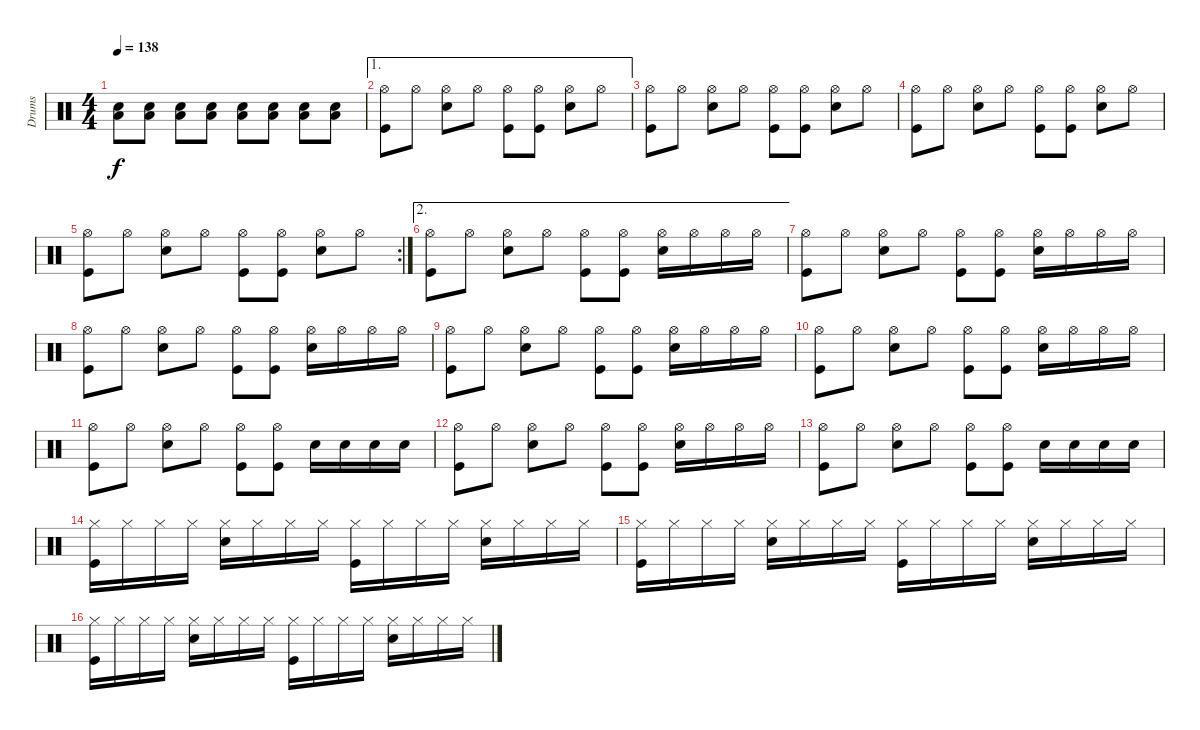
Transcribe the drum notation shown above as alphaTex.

\track ("Drums" "Drums") {instrument percussion}
\staff {score}
\articulation defaults
\ts (4 4)
\tempo 138
\clef neutral
\ks c
("Snare (hit) 2" "Low Floor Tom (hit)").8{dy f} ("Snare (hit) 2" "Low Floor Tom (hit)").8 ("Snare (hit) 2" "Low Floor Tom (hit)").8 ("Snare (hit) 2" "Low Floor Tom (hit)").8 ("Snare (hit) 2" "Low Floor Tom (hit)").8 ("Snare (hit) 2" "Low Floor Tom (hit)").8 ("Snare (hit) 2" "Low Floor Tom (hit)").8 ("Snare (hit) 2" "Low Floor Tom (hit)").8 |
\ae 1
("Hi-Hat (open)" "Kick (hit)").8 "Hi-Hat (open)".8 ("Hi-Hat (open)" "Snare (hit) 2").8 "Hi-Hat (open)".8 ("Hi-Hat (open)" "Kick (hit)").8 ("Hi-Hat (open)" "Kick (hit)").8 ("Hi-Hat (open)" "Snare (hit) 2").8 "Hi-Hat (open)".8 |
("Hi-Hat (open)" "Kick (hit)").8 "Hi-Hat (open)".8 ("Hi-Hat (open)" "Snare (hit) 2").8 "Hi-Hat (open)".8 ("Hi-Hat (open)" "Kick (hit)").8 ("Hi-Hat (open)" "Kick (hit)").8 ("Hi-Hat (open)" "Snare (hit) 2").8 "Hi-Hat (open)".8 |
("Hi-Hat (open)" "Kick (hit)").8 "Hi-Hat (open)".8 ("Hi-Hat (open)" "Snare (hit) 2").8 "Hi-Hat (open)".8 ("Hi-Hat (open)" "Kick (hit)").8 ("Hi-Hat (open)" "Kick (hit)").8 ("Hi-Hat (open)" "Snare (hit) 2").8 "Hi-Hat (open)".8 |
\rc 2
("Hi-Hat (open)" "Kick (hit)").8 "Hi-Hat (open)".8 ("Hi-Hat (open)" "Snare (hit) 2").8 "Hi-Hat (open)".8 ("Hi-Hat (open)" "Kick (hit)").8 ("Hi-Hat (open)" "Kick (hit)").8 ("Hi-Hat (open)" "Snare (hit) 2").8 "Hi-Hat (open)".8 |
\ae 2
("Hi-Hat (open)" "Kick (hit)").8 "Hi-Hat (open)".8 ("Hi-Hat (open)" "Snare (hit) 2").8 "Hi-Hat (open)".8 ("Hi-Hat (open)" "Kick (hit)").8 ("Hi-Hat (open)" "Kick (hit)").8 ("Hi-Hat (open)" "Snare (hit) 2").16 "Hi-Hat (open)".16 "Hi-Hat (open)".16 "Hi-Hat (open)".16 |
("Hi-Hat (open)" "Kick (hit)").8 "Hi-Hat (open)".8 ("Hi-Hat (open)" "Snare (hit) 2").8 "Hi-Hat (open)".8 ("Hi-Hat (open)" "Kick (hit)").8 ("Hi-Hat (open)" "Kick (hit)").8 ("Hi-Hat (open)" "Snare (hit) 2").16 "Hi-Hat (open)".16 "Hi-Hat (open)".16 "Hi-Hat (open)".16 |
("Hi-Hat (open)" "Kick (hit)").8 "Hi-Hat (open)".8 ("Hi-Hat (open)" "Snare (hit) 2").8 "Hi-Hat (open)".8 ("Hi-Hat (open)" "Kick (hit)").8 ("Hi-Hat (open)" "Kick (hit)").8 ("Hi-Hat (open)" "Snare (hit) 2").16 "Hi-Hat (open)".16 "Hi-Hat (open)".16 "Hi-Hat (open)".16 |
("Hi-Hat (open)" "Kick (hit)").8 "Hi-Hat (open)".8 ("Hi-Hat (open)" "Snare (hit) 2").8 "Hi-Hat (open)".8 ("Hi-Hat (open)" "Kick (hit)").8 ("Hi-Hat (open)" "Kick (hit)").8 ("Hi-Hat (open)" "Snare (hit) 2").16 "Hi-Hat (open)".16 "Hi-Hat (open)".16 "Hi-Hat (open)".16 |
("Hi-Hat (open)" "Kick (hit)").8 "Hi-Hat (open)".8 ("Hi-Hat (open)" "Snare (hit) 2").8 "Hi-Hat (open)".8 ("Hi-Hat (open)" "Kick (hit)").8 ("Hi-Hat (open)" "Kick (hit)").8 ("Hi-Hat (open)" "Snare (hit) 2").16 "Hi-Hat (open)".16 "Hi-Hat (open)".16 "Hi-Hat (open)".16 |
("Hi-Hat (open)" "Kick (hit)").8 "Hi-Hat (open)".8 ("Hi-Hat (open)" "Snare (hit) 2").8 "Hi-Hat (open)".8 ("Hi-Hat (open)" "Kick (hit)").8 ("Hi-Hat (open)" "Kick (hit)").8 "Snare (hit) 2".16 "Snare (hit) 2".16 "Snare (hit) 2".16 "Snare (hit) 2".16 |
("Hi-Hat (open)" "Kick (hit)").8 "Hi-Hat (open)".8 ("Hi-Hat (open)" "Snare (hit) 2").8 "Hi-Hat (open)".8 ("Hi-Hat (open)" "Kick (hit)").8 ("Hi-Hat (open)" "Kick (hit)").8 ("Hi-Hat (open)" "Snare (hit) 2").16 "Hi-Hat (open)".16 "Hi-Hat (open)".16 "Hi-Hat (open)".16 |
("Hi-Hat (open)" "Kick (hit)").8 "Hi-Hat (open)".8 ("Hi-Hat (open)" "Snare (hit) 2").8 "Hi-Hat (open)".8 ("Hi-Hat (open)" "Kick (hit)").8 ("Hi-Hat (open)" "Kick (hit)").8 "Snare (hit) 2".16 "Snare (hit) 2".16 "Snare (hit) 2".16 "Snare (hit) 2".16 |
("Hi-Hat (closed)" "Kick (hit)").16 "Hi-Hat (closed)".16 "Hi-Hat (closed)".16 "Hi-Hat (closed)".16 ("Hi-Hat (closed)" "Snare (hit) 2").16 "Hi-Hat (closed)".16 "Hi-Hat (closed)".16 "Hi-Hat (closed)".16 ("Hi-Hat (closed)" "Kick (hit)").16 "Hi-Hat (closed)".16 "Hi-Hat (closed)".16 "Hi-Hat (closed)".16 ("Hi-Hat (closed)" "Snare (hit) 2").16 "Hi-Hat (closed)".16 "Hi-Hat (closed)".16 "Hi-Hat (closed)".16 |
("Hi-Hat (closed)" "Kick (hit)").16 "Hi-Hat (closed)".16 "Hi-Hat (closed)".16 "Hi-Hat (closed)".16 ("Hi-Hat (closed)" "Snare (hit) 2").16 "Hi-Hat (closed)".16 "Hi-Hat (closed)".16 "Hi-Hat (closed)".16 ("Hi-Hat (closed)" "Kick (hit)").16 "Hi-Hat (closed)".16 "Hi-Hat (closed)".16 "Hi-Hat (closed)".16 ("Hi-Hat (closed)" "Snare (hit) 2").16 "Hi-Hat (closed)".16 "Hi-Hat (closed)".16 "Hi-Hat (closed)".16 |
("Hi-Hat (closed)" "Kick (hit)").16 "Hi-Hat (closed)".16 "Hi-Hat (closed)".16 "Hi-Hat (closed)".16 ("Hi-Hat (closed)" "Snare (hit) 2").16 "Hi-Hat (closed)".16 "Hi-Hat (closed)".16 "Hi-Hat (closed)".16 ("Hi-Hat (closed)" "Kick (hit)").16 "Hi-Hat (closed)".16 "Hi-Hat (closed)".16 "Hi-Hat (closed)".16 ("Hi-Hat (closed)" "Snare (hit) 2").16 "Hi-Hat (closed)".16 "Hi-Hat (closed)".16 "Hi-Hat (closed)".16
